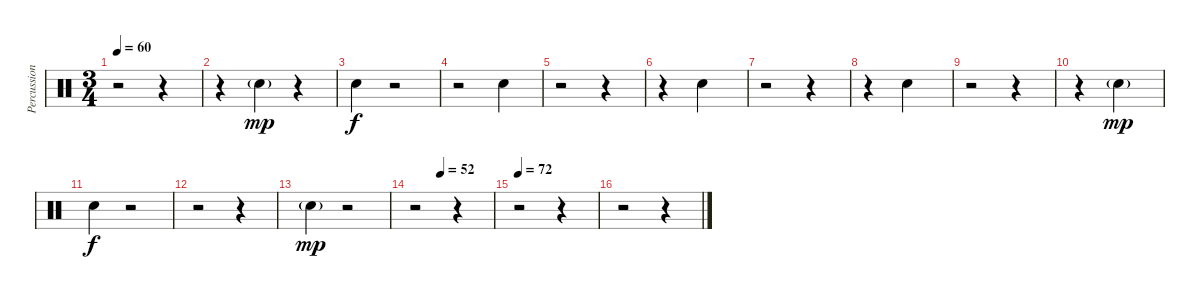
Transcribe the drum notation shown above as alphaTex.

\track ("Percussion" "Percussion") {instrument percussion}
\staff {score}
\articulation defaults
\ts (3 4)
\tempo 60
\clef neutral
\ks c
r.2{dy f} r.4 |
r.4 "Metronome (bell)"{g}.4{dy mp} r.4 |
"Metronome (bell)".4{dy f} r.2 |
r.2 "Metronome (bell)"{tr (81 16)}.4 |
r.2 r.4 |
r.4 "Metronome (bell)".2 |
r.2 r.4 |
r.4 "Metronome (bell)".2 |
r.2 r.4 |
r.4 "Metronome (bell)"{g}.2{dy mp} |
"Metronome (bell)".4{dy f} r.2 |
r.2 r.4 |
"Metronome (bell)"{g}.4{dy mp} r.2 |
\tempo (52 0.3333333333333333)
r.2 r.4 |
\tempo 72
r.2 r.4 |
r.2 r.4
